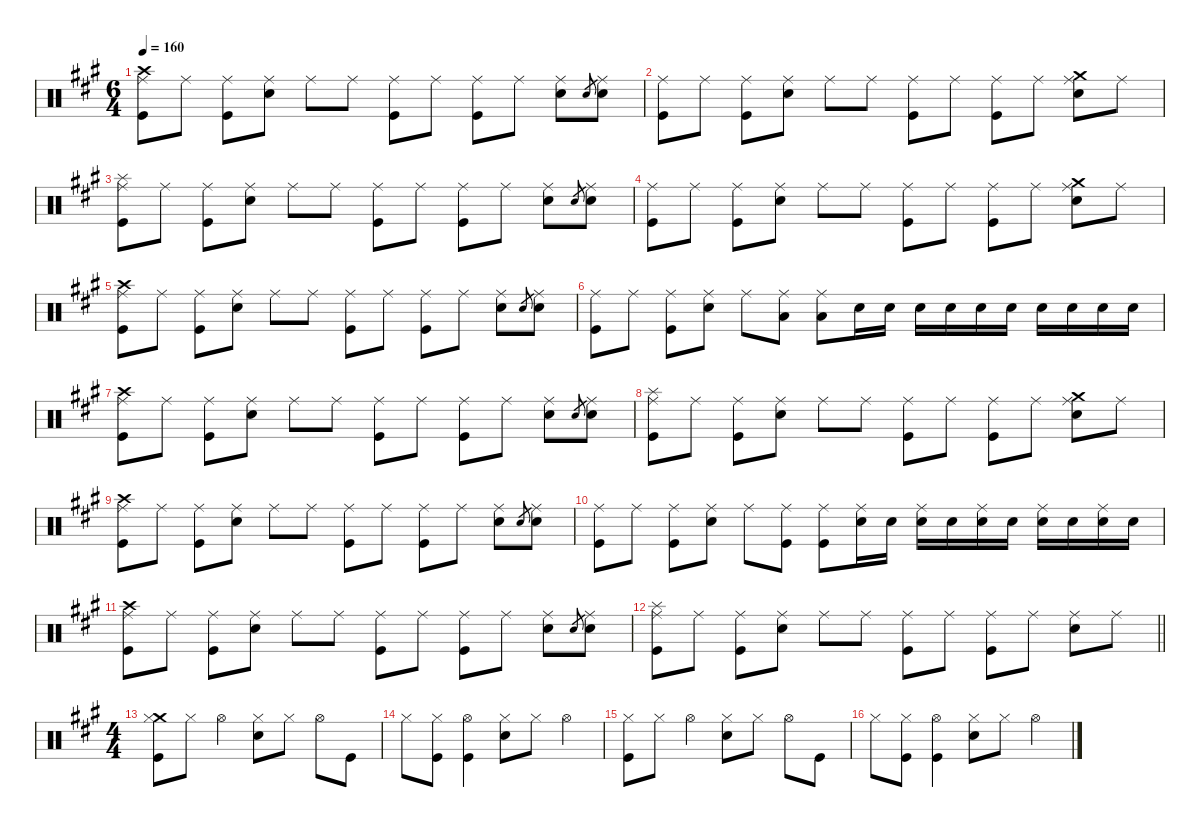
\defaultSystemsLayout 4
\hideDynamics
\bracketExtendMode nobrackets
\singleTrackTrackNamePolicy hidden
\multiTrackTrackNamePolicy hidden
\firstSystemTrackNameMode fullname
\firstSystemTrackNameOrientation horizontal
\otherSystemsTrackNameOrientation horizontal
\track ("Drums" "drm.") {instrument percussion}
\staff {score}
\articulation defaults
\ts (6 4)
\tempo 160
\clef neutral
\ks f#minor
("Crash high (hit)"{acc forcenatural} "Ride (middle)"{acc forcenatural} "Kick (hit)"{acc forcenatural}).8{dy f beam Down} "Ride (middle)"{acc forcenatural}.8{beam Down} ("Ride (middle)"{acc forcenatural} "Kick (hit)"{acc forcenatural}).8{beam Down} ("Ride (middle)"{acc forcenatural} "Snare (hit) 2"{acc forcenatural}).8{beam Down} "Ride (middle)"{acc forcenatural}.8{beam Down} "Ride (middle)"{acc forcenatural}.8{beam Down} ("Ride (middle)"{acc forcenatural} "Kick (hit)"{acc forcenatural}).8{beam Down} "Ride (middle)"{acc forcenatural}.8{beam Down} ("Ride (middle)"{acc forcenatural} "Kick (hit)"{acc forcenatural}).8{beam Down} "Ride (middle)"{acc forcenatural}.8{beam Down} ("Ride (middle)"{acc forcenatural} "Snare (hit) 2"{acc forcenatural}).8{beam Down} "Electric Snare (hit)"{acc forcenatural}.8{gr dy pp beam Up} ("Ride (middle)"{acc forcenatural} "Snare (hit) 2"{acc forcenatural}).8{dy f beam Down} |
("Ride (middle)"{acc forcenatural} "Kick (hit)"{acc forcenatural}).8{beam Down} "Ride (middle)"{acc forcenatural}.8{beam Down} ("Ride (middle)"{acc forcenatural} "Kick (hit)"{acc forcenatural}).8{beam Down} ("Ride (middle)"{acc forcenatural} "Snare (hit) 2"{acc forcenatural}).8{beam Down} "Ride (middle)"{acc forcenatural}.8{beam Down} "Ride (middle)"{acc forcenatural}.8{beam Down} ("Ride (middle)"{acc forcenatural} "Kick (hit)"{acc forcenatural}).8{beam Down} "Ride (middle)"{acc forcenatural}.8{beam Down} ("Ride (middle)"{acc forcenatural} "Kick (hit)"{acc forcenatural}).8{beam Down} "Ride (middle)"{acc forcenatural}.8{beam Down} ("Crash medium (hit)"{acc forcenatural} "Ride (middle)"{acc forcenatural} "Snare (hit) 2"{acc forcenatural}).8{beam Down} "Ride (middle)"{acc forcenatural}.8{beam Down} |
("Splash (hit)"{acc forcenatural} "Ride (middle)"{acc forcenatural} "Kick (hit)"{acc forcenatural}).8{beam Down} "Ride (middle)"{acc forcenatural}.8{beam Down} ("Ride (middle)"{acc forcenatural} "Kick (hit)"{acc forcenatural}).8{beam Down} ("Ride (middle)"{acc forcenatural} "Snare (hit) 2"{acc forcenatural}).8{beam Down} "Ride (middle)"{acc forcenatural}.8{beam Down} "Ride (middle)"{acc forcenatural}.8{beam Down} ("Ride (middle)"{acc forcenatural} "Kick (hit)"{acc forcenatural}).8{beam Down} "Ride (middle)"{acc forcenatural}.8{beam Down} ("Ride (middle)"{acc forcenatural} "Kick (hit)"{acc forcenatural}).8{beam Down} "Ride (middle)"{acc forcenatural}.8{beam Down} ("Ride (middle)"{acc forcenatural} "Snare (hit) 2"{acc forcenatural}).8{beam Down} "Electric Snare (hit)"{acc forcenatural}.8{gr dy pp beam Up} ("Ride (middle)"{acc forcenatural} "Snare (hit) 2"{acc forcenatural}).8{dy f beam Down} |
("Ride (middle)"{acc forcenatural} "Kick (hit)"{acc forcenatural}).8{beam Down} "Ride (middle)"{acc forcenatural}.8{beam Down} ("Ride (middle)"{acc forcenatural} "Kick (hit)"{acc forcenatural}).8{beam Down} ("Ride (middle)"{acc forcenatural} "Snare (hit) 2"{acc forcenatural}).8{beam Down} "Ride (middle)"{acc forcenatural}.8{beam Down} "Ride (middle)"{acc forcenatural}.8{beam Down} ("Ride (middle)"{acc forcenatural} "Kick (hit)"{acc forcenatural}).8{beam Down} "Ride (middle)"{acc forcenatural}.8{beam Down} ("Ride (middle)"{acc forcenatural} "Kick (hit)"{acc forcenatural}).8{beam Down} "Ride (middle)"{acc forcenatural}.8{beam Down} ("Crash medium (hit)"{acc forcenatural} "Ride (middle)"{acc forcenatural} "Snare (hit) 2"{acc forcenatural}).8{beam Down} "Ride (middle)"{acc forcenatural}.8{beam Down} |
("Crash high (hit)"{acc forcenatural} "Ride (middle)"{acc forcenatural} "Kick (hit)"{acc forcenatural}).8{beam Down} "Ride (middle)"{acc forcenatural}.8{beam Down} ("Ride (middle)"{acc forcenatural} "Kick (hit)"{acc forcenatural}).8{beam Down} ("Ride (middle)"{acc forcenatural} "Snare (hit) 2"{acc forcenatural}).8{beam Down} "Ride (middle)"{acc forcenatural}.8{beam Down} "Ride (middle)"{acc forcenatural}.8{beam Down} ("Ride (middle)"{acc forcenatural} "Kick (hit)"{acc forcenatural}).8{beam Down} "Ride (middle)"{acc forcenatural}.8{beam Down} ("Ride (middle)"{acc forcenatural} "Kick (hit)"{acc forcenatural}).8{beam Down} "Ride (middle)"{acc forcenatural}.8{beam Down} ("Ride (middle)"{acc forcenatural} "Snare (hit) 2"{acc forcenatural}).8{beam Down} "Electric Snare (hit)"{acc forcenatural}.8{gr dy pp beam Up} ("Ride (middle)"{acc forcenatural} "Snare (hit) 2"{acc forcenatural}).8{dy f beam Down} |
("Ride (middle)"{acc forcenatural} "Kick (hit)"{acc forcenatural}).8{beam Down} "Ride (middle)"{acc forcenatural}.8{beam Down} ("Ride (middle)"{acc forcenatural} "Kick (hit)"{acc forcenatural}).8{beam Down} ("Ride (middle)"{acc forcenatural} "Snare (hit) 2"{acc forcenatural}).8{beam Down} "Ride (middle)"{acc forcenatural}.8{beam Down} ("Ride (middle)"{acc forcenatural} "Low Tom (hit)"{acc forcenatural}).8{beam Down} ("Ride (middle)"{acc forcenatural} "Low Tom (hit)"{acc forcenatural}).8{beam Down} "Snare (hit) 2"{acc forcenatural}.16{dy p beam Down} "Snare (hit) 2"{acc forcenatural}.16{beam Down} "Snare (hit) 2"{acc forcenatural}.16{dy mf beam Down} "Snare (hit) 2"{acc forcenatural}.16{dy p beam Down} "Snare (hit) 2"{acc forcenatural}.16{beam Down} "Snare (hit) 2"{acc forcenatural}.16{beam Down} "Snare (hit) 2"{acc forcenatural}.16{dy mf beam Down} "Snare (hit) 2"{acc forcenatural}.16{dy p beam Down} "Snare (hit) 2"{acc forcenatural}.16{beam Down} "Snare (hit) 2"{acc forcenatural}.16{beam Down} |
("Crash high (hit)"{acc forcenatural} "Ride (middle)"{acc forcenatural} "Kick (hit)"{acc forcenatural}).8{dy f beam Down} "Ride (middle)"{acc forcenatural}.8{beam Down} ("Ride (middle)"{acc forcenatural} "Kick (hit)"{acc forcenatural}).8{beam Down} ("Ride (middle)"{acc forcenatural} "Snare (hit) 2"{acc forcenatural}).8{beam Down} "Ride (middle)"{acc forcenatural}.8{beam Down} "Ride (middle)"{acc forcenatural}.8{beam Down} ("Ride (middle)"{acc forcenatural} "Kick (hit)"{acc forcenatural}).8{beam Down} "Ride (middle)"{acc forcenatural}.8{beam Down} ("Ride (middle)"{acc forcenatural} "Kick (hit)"{acc forcenatural}).8{beam Down} "Ride (middle)"{acc forcenatural}.8{beam Down} ("Ride (middle)"{acc forcenatural} "Snare (hit) 2"{acc forcenatural}).8{beam Down} "Electric Snare (hit)"{acc forcenatural}.8{gr dy pp beam Up} ("Ride (middle)"{acc forcenatural} "Snare (hit) 2"{acc forcenatural}).8{dy f beam Down} |
("Splash (hit)"{acc forcenatural} "Ride (middle)"{acc forcenatural} "Kick (hit)"{acc forcenatural}).8{beam Down} "Ride (middle)"{acc forcenatural}.8{beam Down} ("Ride (middle)"{acc forcenatural} "Kick (hit)"{acc forcenatural}).8{beam Down} ("Ride (middle)"{acc forcenatural} "Snare (hit) 2"{acc forcenatural}).8{beam Down} "Ride (middle)"{acc forcenatural}.8{beam Down} "Ride (middle)"{acc forcenatural}.8{beam Down} ("Ride (middle)"{acc forcenatural} "Kick (hit)"{acc forcenatural}).8{beam Down} "Ride (middle)"{acc forcenatural}.8{beam Down} ("Ride (middle)"{acc forcenatural} "Kick (hit)"{acc forcenatural}).8{beam Down} "Ride (middle)"{acc forcenatural}.8{beam Down} ("Crash medium (hit)"{acc forcenatural} "Ride (middle)"{acc forcenatural} "Snare (hit) 2"{acc forcenatural}).8{beam Down} "Ride (middle)"{acc forcenatural}.8{beam Down} |
("Crash high (hit)"{acc forcenatural} "Ride (middle)"{acc forcenatural} "Kick (hit)"{acc forcenatural}).8{beam Down} "Ride (middle)"{acc forcenatural}.8{beam Down} ("Ride (middle)"{acc forcenatural} "Kick (hit)"{acc forcenatural}).8{beam Down} ("Ride (middle)"{acc forcenatural} "Snare (hit) 2"{acc forcenatural}).8{beam Down} "Ride (middle)"{acc forcenatural}.8{beam Down} "Ride (middle)"{acc forcenatural}.8{beam Down} ("Ride (middle)"{acc forcenatural} "Kick (hit)"{acc forcenatural}).8{beam Down} "Ride (middle)"{acc forcenatural}.8{beam Down} ("Ride (middle)"{acc forcenatural} "Kick (hit)"{acc forcenatural}).8{beam Down} "Ride (middle)"{acc forcenatural}.8{beam Down} ("Ride (middle)"{acc forcenatural} "Snare (hit) 2"{acc forcenatural}).8{beam Down} "Electric Snare (hit)"{acc forcenatural}.8{gr dy pp beam Up} ("Ride (middle)"{acc forcenatural} "Snare (hit) 2"{acc forcenatural}).8{dy f beam Down} |
("Ride (middle)"{acc forcenatural} "Kick (hit)"{acc forcenatural}).8{beam Down} "Ride (middle)"{acc forcenatural}.8{beam Down} ("Ride (middle)"{acc forcenatural} "Kick (hit)"{acc forcenatural}).8{beam Down} ("Ride (middle)"{acc forcenatural} "Snare (hit) 2"{acc forcenatural}).8{beam Down} "Ride (middle)"{acc forcenatural}.8{beam Down} ("Ride (middle)"{acc forcenatural} "Kick (hit)"{acc forcenatural}).8{beam Down} ("Ride (middle)"{acc forcenatural} "Kick (hit)"{acc forcenatural}).8{beam Down} ("Ride (middle)"{acc forcenatural} "Snare (hit) 2"{acc forcenatural}).16{beam Down} "Snare (hit) 2"{acc forcenatural}.16{dy p beam Down} ("Ride (middle)"{acc forcenatural} "Snare (hit) 2"{acc forcenatural}).16{dy f beam Down} "Snare (hit) 2"{acc forcenatural}.16{dy p beam Down} ("Ride (middle)"{acc forcenatural} "Snare (hit) 2"{acc forcenatural}).16{dy f beam Down} "Snare (hit) 2"{acc forcenatural}.16{dy p beam Down} ("Ride (middle)"{acc forcenatural} "Snare (hit) 2"{acc forcenatural}).16{dy f beam Down} "Snare (hit) 2"{acc forcenatural}.16{dy p beam Down} ("Ride (middle)"{acc forcenatural} "Snare (hit) 2"{acc forcenatural}).16{dy f beam Down} "Snare (hit) 2"{acc forcenatural}.16{dy p beam Down} |
("Crash high (hit)"{acc forcenatural} "Ride (middle)"{acc forcenatural} "Kick (hit)"{acc forcenatural}).8{dy f beam Down} "Ride (middle)"{acc forcenatural}.8{beam Down} ("Ride (middle)"{acc forcenatural} "Kick (hit)"{acc forcenatural}).8{beam Down} ("Ride (middle)"{acc forcenatural} "Snare (hit) 2"{acc forcenatural}).8{beam Down} "Ride (middle)"{acc forcenatural}.8{beam Down} "Ride (middle)"{acc forcenatural}.8{beam Down} ("Ride (middle)"{acc forcenatural} "Kick (hit)"{acc forcenatural}).8{beam Down} "Ride (middle)"{acc forcenatural}.8{beam Down} ("Ride (middle)"{acc forcenatural} "Kick (hit)"{acc forcenatural}).8{beam Down} "Ride (middle)"{acc forcenatural}.8{beam Down} ("Ride (middle)"{acc forcenatural} "Snare (hit) 2"{acc forcenatural}).8{beam Down} "Electric Snare (hit)"{acc forcenatural}.8{gr dy pp beam Up} ("Ride (middle)"{acc forcenatural} "Snare (hit) 2"{acc forcenatural}).8{dy f beam Down} |
\barLineRight lightlight
("Splash (hit)"{acc forcenatural} "Ride (middle)"{acc forcenatural} "Kick (hit)"{acc forcenatural}).8{beam Down} "Ride (middle)"{acc forcenatural}.8{beam Down} ("Ride (middle)"{acc forcenatural} "Kick (hit)"{acc forcenatural}).8{beam Down} ("Ride (middle)"{acc forcenatural} "Snare (hit) 2"{acc forcenatural}).8{beam Down} "Ride (middle)"{acc forcenatural}.8{beam Down} "Ride (middle)"{acc forcenatural}.8{beam Down} ("Ride (middle)"{acc forcenatural} "Kick (hit)"{acc forcenatural}).8{beam Down} "Ride (middle)"{acc forcenatural}.8{beam Down} ("Ride (middle)"{acc forcenatural} "Kick (hit)"{acc forcenatural}).8{beam Down} "Ride (middle)"{acc forcenatural}.8{beam Down} ("Ride (middle)"{acc forcenatural} "Snare (hit) 2"{acc forcenatural}).8{beam Down} "Ride (middle)"{acc forcenatural}.8{beam Down} |
\ts (4 4)
\beaming (8 2 2 2 2)
("Crash medium (hit)"{acc forcenatural} "Hi-Hat (closed)"{acc forcenatural} "Kick (hit)"{acc forcenatural}).8{beam Down} "Hi-Hat (closed)"{acc forcenatural}.8{dy mf beam Down} "Hi-Hat (open)"{acc forcenatural}.4{dy f beam Down} ("Hi-Hat (closed)"{acc forcenatural} "Snare (hit) 2"{acc forcenatural}).8{beam Down} "Hi-Hat (closed)"{acc forcenatural}.8{dy mf beam Down} "Hi-Hat (open)"{acc forcenatural}.8{dy f beam Down} "Kick (hit)"{acc forcenatural}.8{beam Down} |
"Hi-Hat (closed)"{acc forcenatural}.8{beam Down} ("Hi-Hat (closed)"{acc forcenatural} "Kick (hit)"{acc forcenatural}).8{dy mf beam Down} ("Hi-Hat (open)"{acc forcenatural} "Kick (hit)"{acc forcenatural}).4{dy f beam Down} ("Hi-Hat (closed)"{acc forcenatural} "Snare (hit) 2"{acc forcenatural}).8{beam Down} "Hi-Hat (closed)"{acc forcenatural}.8{dy mf beam Down} "Hi-Hat (open)"{acc forcenatural}.4{dy f beam Down} |
("Hi-Hat (closed)"{acc forcenatural} "Kick (hit)"{acc forcenatural}).8{beam Down} "Hi-Hat (closed)"{acc forcenatural}.8{dy mf beam Down} "Hi-Hat (open)"{acc forcenatural}.4{dy f beam Down} ("Hi-Hat (closed)"{acc forcenatural} "Snare (hit) 2"{acc forcenatural}).8{beam Down} "Hi-Hat (closed)"{acc forcenatural}.8{dy mf beam Down} "Hi-Hat (open)"{acc forcenatural}.8{dy f beam Down} "Kick (hit)"{acc forcenatural}.8{beam Down} |
"Hi-Hat (closed)"{acc forcenatural}.8{beam Down} ("Hi-Hat (closed)"{acc forcenatural} "Kick (hit)"{acc forcenatural}).8{dy mf beam Down} ("Hi-Hat (open)"{acc forcenatural} "Kick (hit)"{acc forcenatural}).4{dy f beam Down} ("Hi-Hat (closed)"{acc forcenatural} "Snare (hit) 2"{acc forcenatural}).8{beam Down} "Hi-Hat (closed)"{acc forcenatural}.8{dy mf beam Down} "Hi-Hat (open)"{acc forcenatural}.4{dy f beam Down}
